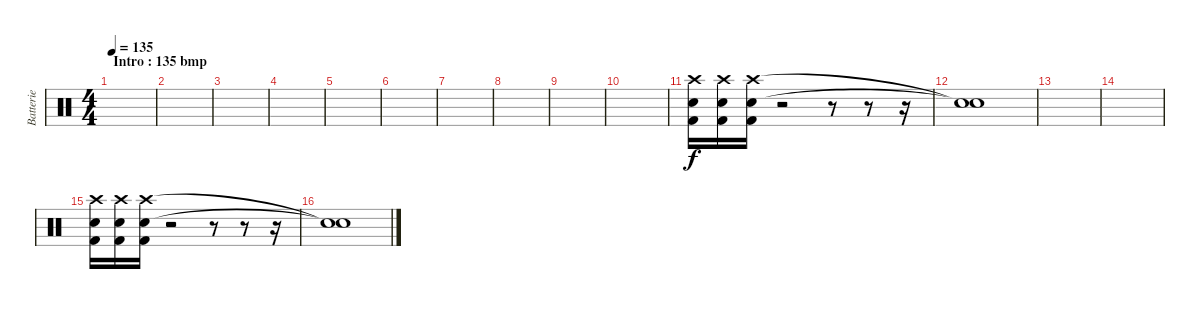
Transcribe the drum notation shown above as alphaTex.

\track ("Batterie" "Batterie") {instrument percussion}
\staff {score}
\articulation defaults
\ts (4 4)
\section ("" "Intro : 135 bmp")
\tempo 135
\clef neutral
\ks c
|
|
|
|
|
|
|
|
|
|
("Crash high (hit)" "Snare (hit) 2" "Kick (hit) 2").16 ("Crash high (hit)" "Snare (hit) 2" "Kick (hit) 2").16 ("Crash high (hit)" "Snare (hit) 2" "Kick (hit) 2").16 r.2 r.8 r.8 r.16 |
("Snare (hit)"{t} "Snare (hit)"{t}).1 |
|
|
("Crash high (hit)" "Snare (hit) 2" "Kick (hit) 2").16 ("Crash high (hit)" "Snare (hit) 2" "Kick (hit) 2").16 ("Crash high (hit)" "Snare (hit) 2" "Kick (hit) 2").16 r.2 r.8 r.8 r.16 |
("Snare (hit)"{t} "Snare (hit)"{t}).1
